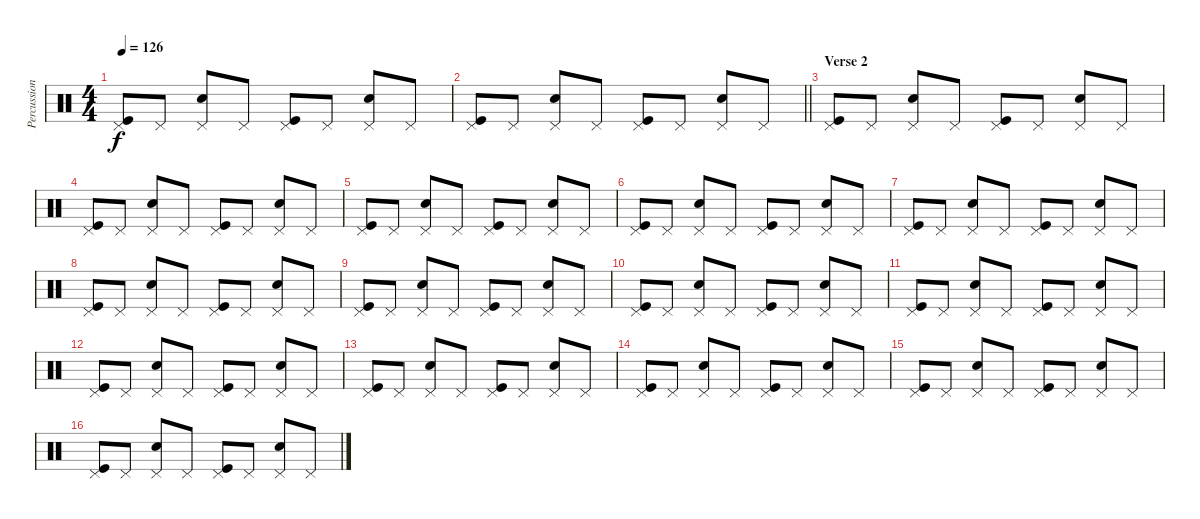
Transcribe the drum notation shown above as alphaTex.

\track ("Percussion" "Percussion") {instrument percussion}
\staff {score}
\articulation defaults
\ts (4 4)
\tempo 126
\clef neutral
\ks c
("Pedal Hi-Hat (hit)" "Kick (hit)").8{dy f} "Pedal Hi-Hat (hit)".8 ("Pedal Hi-Hat (hit)" "Snare (hit) 2").8 "Pedal Hi-Hat (hit)".8 ("Pedal Hi-Hat (hit)" "Kick (hit)").8 "Pedal Hi-Hat (hit)".8 ("Pedal Hi-Hat (hit)" "Snare (hit) 2").8 "Pedal Hi-Hat (hit)".8 |
\barLineRight lightlight
("Pedal Hi-Hat (hit)" "Kick (hit)").8 "Pedal Hi-Hat (hit)".8 ("Pedal Hi-Hat (hit)" "Snare (hit) 2").8 "Pedal Hi-Hat (hit)".8 ("Pedal Hi-Hat (hit)" "Kick (hit)").8 "Pedal Hi-Hat (hit)".8 ("Pedal Hi-Hat (hit)" "Snare (hit) 2").8 "Pedal Hi-Hat (hit)".8 |
\section ("" "Verse 2")
("Pedal Hi-Hat (hit)" "Kick (hit)").8 "Pedal Hi-Hat (hit)".8 ("Pedal Hi-Hat (hit)" "Snare (hit) 2").8 "Pedal Hi-Hat (hit)".8 ("Pedal Hi-Hat (hit)" "Kick (hit)").8 "Pedal Hi-Hat (hit)".8 ("Pedal Hi-Hat (hit)" "Snare (hit) 2").8 "Pedal Hi-Hat (hit)".8 |
("Pedal Hi-Hat (hit)" "Kick (hit)").8 "Pedal Hi-Hat (hit)".8 ("Pedal Hi-Hat (hit)" "Snare (hit) 2").8 "Pedal Hi-Hat (hit)".8 ("Pedal Hi-Hat (hit)" "Kick (hit)").8 "Pedal Hi-Hat (hit)".8 ("Pedal Hi-Hat (hit)" "Snare (hit) 2").8 "Pedal Hi-Hat (hit)".8 |
("Pedal Hi-Hat (hit)" "Kick (hit)").8 "Pedal Hi-Hat (hit)".8 ("Pedal Hi-Hat (hit)" "Snare (hit) 2").8 "Pedal Hi-Hat (hit)".8 ("Pedal Hi-Hat (hit)" "Kick (hit)").8 "Pedal Hi-Hat (hit)".8 ("Pedal Hi-Hat (hit)" "Snare (hit) 2").8 "Pedal Hi-Hat (hit)".8 |
("Pedal Hi-Hat (hit)" "Kick (hit)").8 "Pedal Hi-Hat (hit)".8 ("Pedal Hi-Hat (hit)" "Snare (hit) 2").8 "Pedal Hi-Hat (hit)".8 ("Pedal Hi-Hat (hit)" "Kick (hit)").8 "Pedal Hi-Hat (hit)".8 ("Pedal Hi-Hat (hit)" "Snare (hit) 2").8 "Pedal Hi-Hat (hit)".8 |
("Pedal Hi-Hat (hit)" "Kick (hit)").8 "Pedal Hi-Hat (hit)".8 ("Pedal Hi-Hat (hit)" "Snare (hit) 2").8 "Pedal Hi-Hat (hit)".8 ("Pedal Hi-Hat (hit)" "Kick (hit)").8 "Pedal Hi-Hat (hit)".8 ("Pedal Hi-Hat (hit)" "Snare (hit) 2").8 "Pedal Hi-Hat (hit)".8 |
("Pedal Hi-Hat (hit)" "Kick (hit)").8 "Pedal Hi-Hat (hit)".8 ("Pedal Hi-Hat (hit)" "Snare (hit) 2").8 "Pedal Hi-Hat (hit)".8 ("Pedal Hi-Hat (hit)" "Kick (hit)").8 "Pedal Hi-Hat (hit)".8 ("Pedal Hi-Hat (hit)" "Snare (hit) 2").8 "Pedal Hi-Hat (hit)".8 |
("Pedal Hi-Hat (hit)" "Kick (hit)").8 "Pedal Hi-Hat (hit)".8 ("Pedal Hi-Hat (hit)" "Snare (hit) 2").8 "Pedal Hi-Hat (hit)".8 ("Pedal Hi-Hat (hit)" "Kick (hit)").8 "Pedal Hi-Hat (hit)".8 ("Pedal Hi-Hat (hit)" "Snare (hit) 2").8 "Pedal Hi-Hat (hit)".8 |
("Pedal Hi-Hat (hit)" "Kick (hit)").8 "Pedal Hi-Hat (hit)".8 ("Pedal Hi-Hat (hit)" "Snare (hit) 2").8 "Pedal Hi-Hat (hit)".8 ("Pedal Hi-Hat (hit)" "Kick (hit)").8 "Pedal Hi-Hat (hit)".8 ("Pedal Hi-Hat (hit)" "Snare (hit) 2").8 "Pedal Hi-Hat (hit)".8 |
("Pedal Hi-Hat (hit)" "Kick (hit)").8 "Pedal Hi-Hat (hit)".8 ("Pedal Hi-Hat (hit)" "Snare (hit) 2").8 "Pedal Hi-Hat (hit)".8 ("Pedal Hi-Hat (hit)" "Kick (hit)").8 "Pedal Hi-Hat (hit)".8 ("Pedal Hi-Hat (hit)" "Snare (hit) 2").8 "Pedal Hi-Hat (hit)".8 |
("Pedal Hi-Hat (hit)" "Kick (hit)").8 "Pedal Hi-Hat (hit)".8 ("Pedal Hi-Hat (hit)" "Snare (hit) 2").8 "Pedal Hi-Hat (hit)".8 ("Pedal Hi-Hat (hit)" "Kick (hit)").8 "Pedal Hi-Hat (hit)".8 ("Pedal Hi-Hat (hit)" "Snare (hit) 2").8 "Pedal Hi-Hat (hit)".8 |
("Pedal Hi-Hat (hit)" "Kick (hit)").8 "Pedal Hi-Hat (hit)".8 ("Pedal Hi-Hat (hit)" "Snare (hit) 2").8 "Pedal Hi-Hat (hit)".8 ("Pedal Hi-Hat (hit)" "Kick (hit)").8 "Pedal Hi-Hat (hit)".8 ("Pedal Hi-Hat (hit)" "Snare (hit) 2").8 "Pedal Hi-Hat (hit)".8 |
("Pedal Hi-Hat (hit)" "Kick (hit)").8 "Pedal Hi-Hat (hit)".8 ("Pedal Hi-Hat (hit)" "Snare (hit) 2").8 "Pedal Hi-Hat (hit)".8 ("Pedal Hi-Hat (hit)" "Kick (hit)").8 "Pedal Hi-Hat (hit)".8 ("Pedal Hi-Hat (hit)" "Snare (hit) 2").8 "Pedal Hi-Hat (hit)".8 |
("Pedal Hi-Hat (hit)" "Kick (hit)").8 "Pedal Hi-Hat (hit)".8 ("Pedal Hi-Hat (hit)" "Snare (hit) 2").8 "Pedal Hi-Hat (hit)".8 ("Pedal Hi-Hat (hit)" "Kick (hit)").8 "Pedal Hi-Hat (hit)".8 ("Pedal Hi-Hat (hit)" "Snare (hit) 2").8 "Pedal Hi-Hat (hit)".8 |
("Pedal Hi-Hat (hit)" "Kick (hit)").8 "Pedal Hi-Hat (hit)".8 ("Pedal Hi-Hat (hit)" "Snare (hit) 2").8 "Pedal Hi-Hat (hit)".8 ("Pedal Hi-Hat (hit)" "Kick (hit)").8 "Pedal Hi-Hat (hit)".8 ("Pedal Hi-Hat (hit)" "Snare (hit) 2").8 "Pedal Hi-Hat (hit)".8
